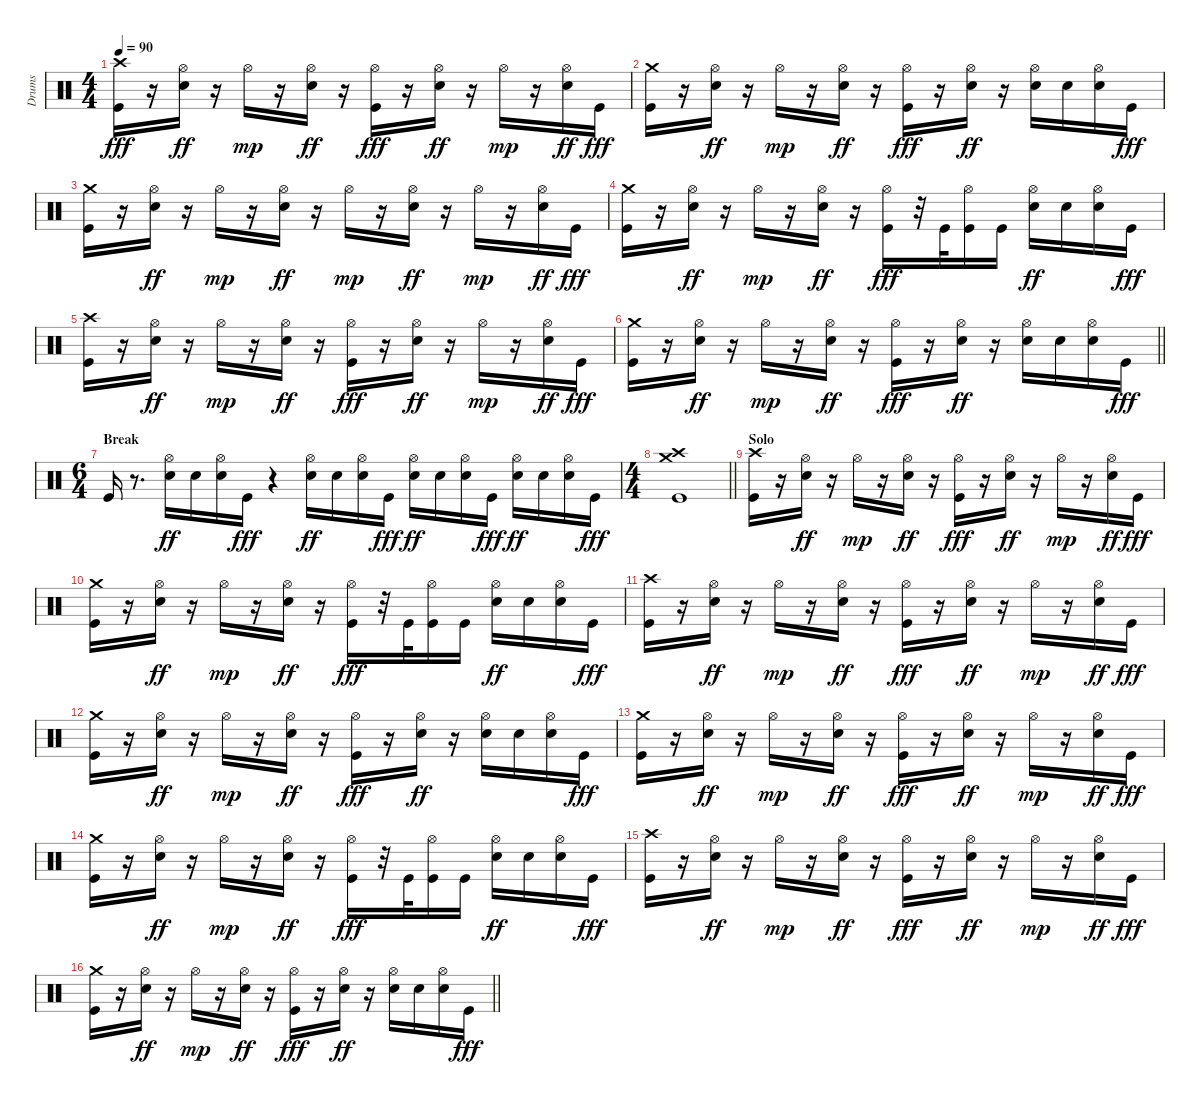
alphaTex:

\track ("Drums" "Drums") {instrument percussion}
\staff {score}
\articulation defaults
\ts (4 4)
\tempo 90
\clef neutral
\ks c
("Crash high (hit)" "Kick (hit)").16{dy fff} r.16 ("Hi-Hat (open)" "Electric Snare (hit)").16{dy ff} r.16 "Hi-Hat (open)".16{dy mp} r.16 ("Hi-Hat (open)" "Electric Snare (hit)").16{dy ff} r.16 ("Hi-Hat (open)" "Kick (hit)").16{dy fff} r.16 ("Hi-Hat (open)" "Electric Snare (hit)").16{dy ff} r.16 "Hi-Hat (open)".16{dy mp} r.16 ("Hi-Hat (open)" "Electric Snare (hit)").16{dy ff} "Kick (hit)".16{dy fff} |
("Crash medium (hit)" "Kick (hit)").16 r.16 ("Hi-Hat (open)" "Electric Snare (hit)").16{dy ff} r.16 "Hi-Hat (open)".16{dy mp} r.16 ("Hi-Hat (open)" "Electric Snare (hit)").16{dy ff} r.16 ("Hi-Hat (open)" "Kick (hit)").16{dy fff} r.16 ("Hi-Hat (open)" "Electric Snare (hit)").16{dy ff} r.16 ("Hi-Hat (open)" "Electric Snare (hit)").16 "Electric Snare (hit)".16 ("Hi-Hat (open)" "Electric Snare (hit)").16 "Kick (hit)".16{dy fff} |
("Crash medium (hit)" "Kick (hit)").16 r.16 ("Hi-Hat (open)" "Electric Snare (hit)").16{dy ff} r.16 "Hi-Hat (open)".16{dy mp} r.16 ("Hi-Hat (open)" "Electric Snare (hit)").16{dy ff} r.16 "Hi-Hat (open)".16{dy mp} r.16 ("Hi-Hat (open)" "Electric Snare (hit)").16{dy ff} r.16 "Hi-Hat (open)".16{dy mp} r.16 ("Hi-Hat (open)" "Electric Snare (hit)").16{dy ff} "Kick (hit)".16{dy fff} |
("Crash medium (hit)" "Kick (hit)").16 r.16 ("Hi-Hat (open)" "Electric Snare (hit)").16{dy ff} r.16 "Hi-Hat (open)".16{dy mp} r.16 ("Hi-Hat (open)" "Electric Snare (hit)").16{dy ff} r.16 ("Hi-Hat (open)" "Kick (hit)").16{dy fff} r.32 "Kick (hit)".32 ("Hi-Hat (open)" "Kick (hit)").16 "Kick (hit)".16 ("Hi-Hat (open)" "Electric Snare (hit)").16{dy ff} "Electric Snare (hit)".16 ("Hi-Hat (open)" "Electric Snare (hit)").16 "Kick (hit)".16{dy fff} |
("Crash high (hit)" "Kick (hit)").16 r.16 ("Hi-Hat (open)" "Electric Snare (hit)").16{dy ff} r.16 "Hi-Hat (open)".16{dy mp} r.16 ("Hi-Hat (open)" "Electric Snare (hit)").16{dy ff} r.16 ("Hi-Hat (open)" "Kick (hit)").16{dy fff} r.16 ("Hi-Hat (open)" "Electric Snare (hit)").16{dy ff} r.16 "Hi-Hat (open)".16{dy mp} r.16 ("Hi-Hat (open)" "Electric Snare (hit)").16{dy ff} "Kick (hit)".16{dy fff} |
\barLineRight lightlight
("Crash medium (hit)" "Kick (hit)").16 r.16 ("Hi-Hat (open)" "Electric Snare (hit)").16{dy ff} r.16 "Hi-Hat (open)".16{dy mp} r.16 ("Hi-Hat (open)" "Electric Snare (hit)").16{dy ff} r.16 ("Hi-Hat (open)" "Kick (hit)").16{dy fff} r.16 ("Hi-Hat (open)" "Electric Snare (hit)").16{dy ff} r.16 ("Hi-Hat (open)" "Electric Snare (hit)").16 "Electric Snare (hit)".16 ("Hi-Hat (open)" "Electric Snare (hit)").16 "Kick (hit)".16{dy fff} |
\ts (6 4)
\section ("" "Break")
"Kick (hit)".16 r.8{d} ("Hi-Hat (open)" "Electric Snare (hit)").16{dy ff} "Electric Snare (hit)".16 ("Hi-Hat (open)" "Electric Snare (hit)").16 "Kick (hit)".16{dy fff} r.4 ("Hi-Hat (open)" "Electric Snare (hit)").16{dy ff} "Electric Snare (hit)".16 ("Hi-Hat (open)" "Electric Snare (hit)").16 "Kick (hit)".16{dy fff} ("Hi-Hat (open)" "Electric Snare (hit)").16{dy ff} "Electric Snare (hit)".16 ("Hi-Hat (open)" "Electric Snare (hit)").16 "Kick (hit)".16{dy fff} ("Hi-Hat (open)" "Electric Snare (hit)").16{dy ff} "Electric Snare (hit)".16 ("Hi-Hat (open)" "Electric Snare (hit)").16 "Kick (hit)".16{dy fff} |
\ts (4 4)
\barLineRight lightlight
("Crash high (hit)" "Crash medium (hit)" "Kick (hit)").1 |
\section ("" "Solo")
("Crash high (hit)" "Kick (hit)").16 r.16 ("Hi-Hat (open)" "Electric Snare (hit)").16{dy ff} r.16 "Hi-Hat (open)".16{dy mp} r.16 ("Hi-Hat (open)" "Electric Snare (hit)").16{dy ff} r.16 ("Hi-Hat (open)" "Kick (hit)").16{dy fff} r.16 ("Hi-Hat (open)" "Electric Snare (hit)").16{dy ff} r.16 "Hi-Hat (open)".16{dy mp} r.16 ("Hi-Hat (open)" "Electric Snare (hit)").16{dy ff} "Kick (hit)".16{dy fff} |
("Crash medium (hit)" "Kick (hit)").16 r.16 ("Hi-Hat (open)" "Electric Snare (hit)").16{dy ff} r.16 "Hi-Hat (open)".16{dy mp} r.16 ("Hi-Hat (open)" "Electric Snare (hit)").16{dy ff} r.16 ("Hi-Hat (open)" "Kick (hit)").16{dy fff} r.32 "Kick (hit)".32 ("Hi-Hat (open)" "Kick (hit)").16 "Kick (hit)".16 ("Hi-Hat (open)" "Electric Snare (hit)").16{dy ff} "Electric Snare (hit)".16 ("Hi-Hat (open)" "Electric Snare (hit)").16 "Kick (hit)".16{dy fff} |
("Crash high (hit)" "Kick (hit)").16 r.16 ("Hi-Hat (open)" "Electric Snare (hit)").16{dy ff} r.16 "Hi-Hat (open)".16{dy mp} r.16 ("Hi-Hat (open)" "Electric Snare (hit)").16{dy ff} r.16 ("Hi-Hat (open)" "Kick (hit)").16{dy fff} r.16 ("Hi-Hat (open)" "Electric Snare (hit)").16{dy ff} r.16 "Hi-Hat (open)".16{dy mp} r.16 ("Hi-Hat (open)" "Electric Snare (hit)").16{dy ff} "Kick (hit)".16{dy fff} |
("Crash medium (hit)" "Kick (hit)").16 r.16 ("Hi-Hat (open)" "Electric Snare (hit)").16{dy ff} r.16 "Hi-Hat (open)".16{dy mp} r.16 ("Hi-Hat (open)" "Electric Snare (hit)").16{dy ff} r.16 ("Hi-Hat (open)" "Kick (hit)").16{dy fff} r.16 ("Hi-Hat (open)" "Electric Snare (hit)").16{dy ff} r.16 ("Hi-Hat (open)" "Electric Snare (hit)").16 "Electric Snare (hit)".16 ("Hi-Hat (open)" "Electric Snare (hit)").16 "Kick (hit)".16{dy fff} |
("Crash medium (hit)" "Kick (hit)").16 r.16 ("Hi-Hat (open)" "Electric Snare (hit)").16{dy ff} r.16 "Hi-Hat (open)".16{dy mp} r.16 ("Hi-Hat (open)" "Electric Snare (hit)").16{dy ff} r.16 ("Hi-Hat (open)" "Kick (hit)").16{dy fff} r.16 ("Hi-Hat (open)" "Electric Snare (hit)").16{dy ff} r.16 "Hi-Hat (open)".16{dy mp} r.16 ("Hi-Hat (open)" "Electric Snare (hit)").16{dy ff} "Kick (hit)".16{dy fff} |
("Crash medium (hit)" "Kick (hit)").16 r.16 ("Hi-Hat (open)" "Electric Snare (hit)").16{dy ff} r.16 "Hi-Hat (open)".16{dy mp} r.16 ("Hi-Hat (open)" "Electric Snare (hit)").16{dy ff} r.16 ("Hi-Hat (open)" "Kick (hit)").16{dy fff} r.32 "Kick (hit)".32 ("Hi-Hat (open)" "Kick (hit)").16 "Kick (hit)".16 ("Hi-Hat (open)" "Electric Snare (hit)").16{dy ff} "Electric Snare (hit)".16 ("Hi-Hat (open)" "Electric Snare (hit)").16 "Kick (hit)".16{dy fff} |
("Crash high (hit)" "Kick (hit)").16 r.16 ("Hi-Hat (open)" "Electric Snare (hit)").16{dy ff} r.16 "Hi-Hat (open)".16{dy mp} r.16 ("Hi-Hat (open)" "Electric Snare (hit)").16{dy ff} r.16 ("Hi-Hat (open)" "Kick (hit)").16{dy fff} r.16 ("Hi-Hat (open)" "Electric Snare (hit)").16{dy ff} r.16 "Hi-Hat (open)".16{dy mp} r.16 ("Hi-Hat (open)" "Electric Snare (hit)").16{dy ff} "Kick (hit)".16{dy fff} |
\barLineRight lightlight
("Crash medium (hit)" "Kick (hit)").16 r.16 ("Hi-Hat (open)" "Electric Snare (hit)").16{dy ff} r.16 "Hi-Hat (open)".16{dy mp} r.16 ("Hi-Hat (open)" "Electric Snare (hit)").16{dy ff} r.16 ("Hi-Hat (open)" "Kick (hit)").16{dy fff} r.16 ("Hi-Hat (open)" "Electric Snare (hit)").16{dy ff} r.16 ("Hi-Hat (open)" "Electric Snare (hit)").16 "Electric Snare (hit)".16 ("Hi-Hat (open)" "Electric Snare (hit)").16 "Kick (hit)".16{dy fff}
